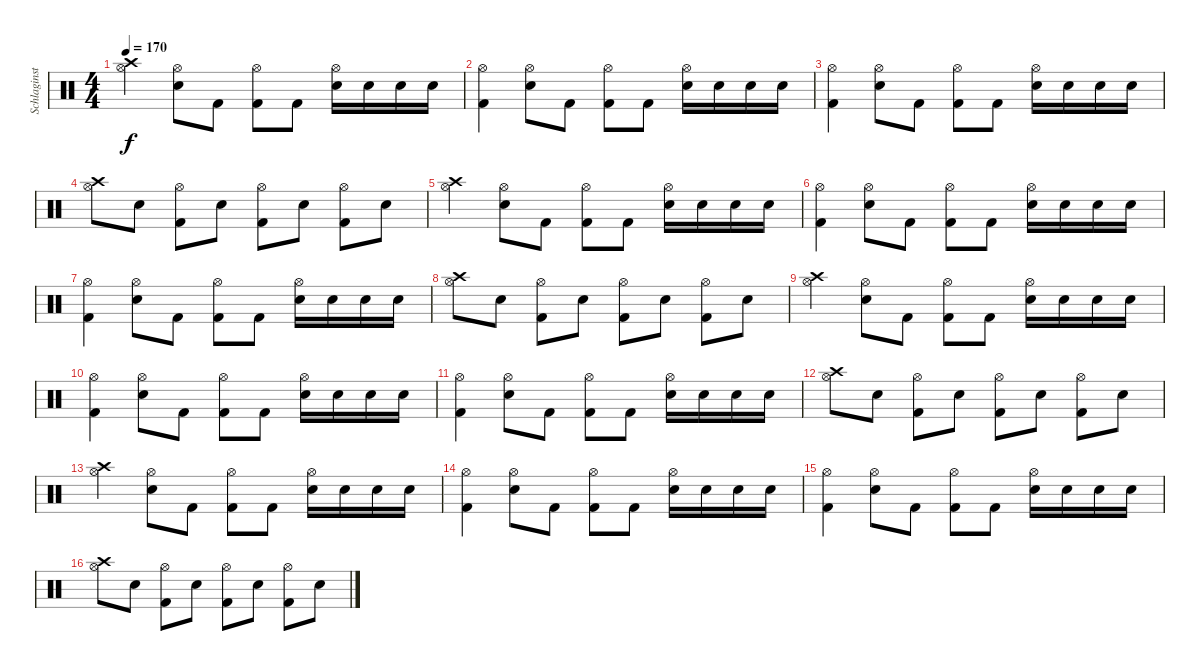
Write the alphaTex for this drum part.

\track ("Schlaginstrumente - Auswahl" "Schlaginst") {instrument percussion}
\staff {score}
\articulation defaults
\ts (4 4)
\tempo 170
\clef neutral
\ks c
("Hi-Hat (open)" "Crash high (hit)").4{dy f} ("Hi-Hat (open)" "Electric Snare (hit)").8 "Kick (hit) 2".8 ("Hi-Hat (open)" "Kick (hit) 2").8 "Kick (hit) 2".8 ("Hi-Hat (open)" "Electric Snare (hit)").16 "Electric Snare (hit)".16 "Electric Snare (hit)".16 "Electric Snare (hit)".16 |
("Hi-Hat (open)" "Kick (hit) 2").4 ("Hi-Hat (open)" "Electric Snare (hit)").8 "Kick (hit) 2".8 ("Hi-Hat (open)" "Kick (hit) 2").8 "Kick (hit) 2".8 ("Hi-Hat (open)" "Electric Snare (hit)").16 "Electric Snare (hit)".16 "Electric Snare (hit)".16 "Electric Snare (hit)".16 |
("Hi-Hat (open)" "Kick (hit) 2").4 ("Hi-Hat (open)" "Electric Snare (hit)").8 "Kick (hit) 2".8 ("Hi-Hat (open)" "Kick (hit) 2").8 "Kick (hit) 2".8 ("Hi-Hat (open)" "Electric Snare (hit)").16 "Electric Snare (hit)".16 "Electric Snare (hit)".16 "Electric Snare (hit)".16 |
("Hi-Hat (open)" "Crash high (hit)").8 "Electric Snare (hit)".8 ("Hi-Hat (open)" "Kick (hit) 2").8 "Electric Snare (hit)".8 ("Hi-Hat (open)" "Kick (hit) 2").8 "Electric Snare (hit)".8 ("Hi-Hat (open)" "Kick (hit) 2").8 "Electric Snare (hit)".8 |
("Hi-Hat (open)" "Crash high (hit)").4 ("Hi-Hat (open)" "Electric Snare (hit)").8 "Kick (hit) 2".8 ("Hi-Hat (open)" "Kick (hit) 2").8 "Kick (hit) 2".8 ("Hi-Hat (open)" "Electric Snare (hit)").16 "Electric Snare (hit)".16 "Electric Snare (hit)".16 "Electric Snare (hit)".16 |
("Hi-Hat (open)" "Kick (hit) 2").4 ("Hi-Hat (open)" "Electric Snare (hit)").8 "Kick (hit) 2".8 ("Hi-Hat (open)" "Kick (hit) 2").8 "Kick (hit) 2".8 ("Hi-Hat (open)" "Electric Snare (hit)").16 "Electric Snare (hit)".16 "Electric Snare (hit)".16 "Electric Snare (hit)".16 |
("Hi-Hat (open)" "Kick (hit) 2").4 ("Hi-Hat (open)" "Electric Snare (hit)").8 "Kick (hit) 2".8 ("Hi-Hat (open)" "Kick (hit) 2").8 "Kick (hit) 2".8 ("Hi-Hat (open)" "Electric Snare (hit)").16 "Electric Snare (hit)".16 "Electric Snare (hit)".16 "Electric Snare (hit)".16 |
("Hi-Hat (open)" "Crash high (hit)").8 "Electric Snare (hit)".8 ("Hi-Hat (open)" "Kick (hit) 2").8 "Electric Snare (hit)".8 ("Hi-Hat (open)" "Kick (hit) 2").8 "Electric Snare (hit)".8 ("Hi-Hat (open)" "Kick (hit) 2").8 "Electric Snare (hit)".8 |
("Hi-Hat (open)" "Crash high (hit)").4 ("Hi-Hat (open)" "Electric Snare (hit)").8 "Kick (hit) 2".8 ("Hi-Hat (open)" "Kick (hit) 2").8 "Kick (hit) 2".8 ("Hi-Hat (open)" "Electric Snare (hit)").16 "Electric Snare (hit)".16 "Electric Snare (hit)".16 "Electric Snare (hit)".16 |
("Hi-Hat (open)" "Kick (hit) 2").4 ("Hi-Hat (open)" "Electric Snare (hit)").8 "Kick (hit) 2".8 ("Hi-Hat (open)" "Kick (hit) 2").8 "Kick (hit) 2".8 ("Hi-Hat (open)" "Electric Snare (hit)").16 "Electric Snare (hit)".16 "Electric Snare (hit)".16 "Electric Snare (hit)".16 |
("Hi-Hat (open)" "Kick (hit) 2").4 ("Hi-Hat (open)" "Electric Snare (hit)").8 "Kick (hit) 2".8 ("Hi-Hat (open)" "Kick (hit) 2").8 "Kick (hit) 2".8 ("Hi-Hat (open)" "Electric Snare (hit)").16 "Electric Snare (hit)".16 "Electric Snare (hit)".16 "Electric Snare (hit)".16 |
("Hi-Hat (open)" "Crash high (hit)").8 "Electric Snare (hit)".8 ("Hi-Hat (open)" "Kick (hit) 2").8 "Electric Snare (hit)".8 ("Hi-Hat (open)" "Kick (hit) 2").8 "Electric Snare (hit)".8 ("Hi-Hat (open)" "Kick (hit) 2").8 "Electric Snare (hit)".8 |
("Hi-Hat (open)" "Crash high (hit)").4 ("Hi-Hat (open)" "Electric Snare (hit)").8 "Kick (hit) 2".8 ("Hi-Hat (open)" "Kick (hit) 2").8 "Kick (hit) 2".8 ("Hi-Hat (open)" "Electric Snare (hit)").16 "Electric Snare (hit)".16 "Electric Snare (hit)".16 "Electric Snare (hit)".16 |
("Hi-Hat (open)" "Kick (hit) 2").4 ("Hi-Hat (open)" "Electric Snare (hit)").8 "Kick (hit) 2".8 ("Hi-Hat (open)" "Kick (hit) 2").8 "Kick (hit) 2".8 ("Hi-Hat (open)" "Electric Snare (hit)").16 "Electric Snare (hit)".16 "Electric Snare (hit)".16 "Electric Snare (hit)".16 |
("Hi-Hat (open)" "Kick (hit) 2").4 ("Hi-Hat (open)" "Electric Snare (hit)").8 "Kick (hit) 2".8 ("Hi-Hat (open)" "Kick (hit) 2").8 "Kick (hit) 2".8 ("Hi-Hat (open)" "Electric Snare (hit)").16 "Electric Snare (hit)".16 "Electric Snare (hit)".16 "Electric Snare (hit)".16 |
("Hi-Hat (open)" "Crash high (hit)").8 "Electric Snare (hit)".8 ("Hi-Hat (open)" "Kick (hit) 2").8 "Electric Snare (hit)".8 ("Hi-Hat (open)" "Kick (hit) 2").8 "Electric Snare (hit)".8 ("Hi-Hat (open)" "Kick (hit) 2").8 "Electric Snare (hit)".8
